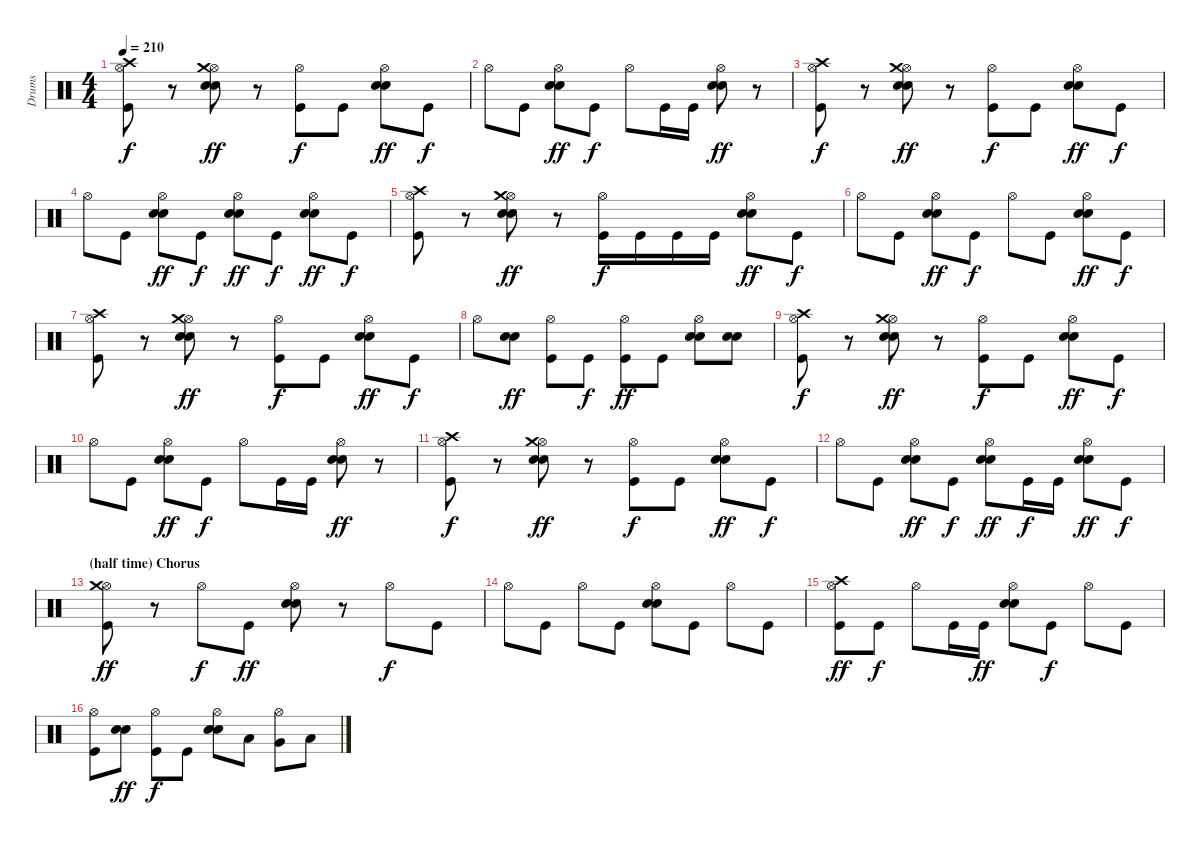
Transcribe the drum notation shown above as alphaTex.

\track ("Drums" "Drums") {instrument percussion}
\staff {score}
\articulation defaults
\ts (4 4)
\tempo 210
\clef neutral
\ks c
("Kick (hit)" "Hi-Hat (open)" "Crash high (hit)").8{dy f} r.8 ("Electric Snare (hit)" "Electric Snare (hit)" "Hi-Hat (open)" "Crash medium (hit)").8{dy ff} r.8 ("Kick (hit)" "Hi-Hat (open)").8{dy f} "Kick (hit)".8 ("Electric Snare (hit)" "Electric Snare (hit)" "Hi-Hat (open)").8{dy ff} "Kick (hit)".8{dy f} |
"Hi-Hat (open)".8 "Kick (hit)".8 ("Electric Snare (hit)" "Electric Snare (hit)" "Hi-Hat (open)").8{dy ff} "Kick (hit)".8{dy f} "Hi-Hat (open)".8 "Kick (hit)".16 "Kick (hit)".16 ("Electric Snare (hit)" "Electric Snare (hit)" "Hi-Hat (open)").8{dy ff} r.8 |
("Kick (hit)" "Hi-Hat (open)" "Crash high (hit)").8{dy f} r.8 ("Electric Snare (hit)" "Electric Snare (hit)" "Hi-Hat (open)" "Crash medium (hit)").8{dy ff} r.8 ("Kick (hit)" "Hi-Hat (open)").8{dy f} "Kick (hit)".8 ("Electric Snare (hit)" "Electric Snare (hit)" "Hi-Hat (open)").8{dy ff} "Kick (hit)".8{dy f} |
"Hi-Hat (open)".8 "Kick (hit)".8 ("Electric Snare (hit)" "Electric Snare (hit)" "Hi-Hat (open)").8{dy ff} "Kick (hit)".8{dy f} ("Electric Snare (hit)" "Electric Snare (hit)" "Hi-Hat (open)").8{dy ff} "Kick (hit)".8{dy f} ("Electric Snare (hit)" "Electric Snare (hit)" "Hi-Hat (open)").8{dy ff} "Kick (hit)".8{dy f} |
("Kick (hit)" "Hi-Hat (open)" "Crash high (hit)").8 r.8 ("Electric Snare (hit)" "Electric Snare (hit)" "Hi-Hat (open)" "Crash medium (hit)").8{dy ff} r.8 ("Kick (hit)" "Hi-Hat (open)").16{dy f} "Kick (hit)".16 "Kick (hit)".16 "Kick (hit)".16 ("Electric Snare (hit)" "Electric Snare (hit)" "Hi-Hat (open)").8{dy ff} "Kick (hit)".8{dy f} |
"Hi-Hat (open)".8 "Kick (hit)".8 ("Electric Snare (hit)" "Electric Snare (hit)" "Hi-Hat (open)").8{dy ff} "Kick (hit)".8{dy f} "Hi-Hat (open)".8 "Kick (hit)".8 ("Electric Snare (hit)" "Electric Snare (hit)" "Hi-Hat (open)").8{dy ff} "Kick (hit)".8{dy f} |
("Kick (hit)" "Hi-Hat (open)" "Crash high (hit)").8 r.8 ("Electric Snare (hit)" "Electric Snare (hit)" "Hi-Hat (open)" "Crash medium (hit)").8{dy ff} r.8 ("Kick (hit)" "Hi-Hat (open)").8{dy f} "Kick (hit)".8 ("Electric Snare (hit)" "Electric Snare (hit)" "Hi-Hat (open)").8{dy ff} "Kick (hit)".8{dy f} |
"Hi-Hat (open)".8 ("Electric Snare (hit)" "Electric Snare (hit)").8{dy ff} ("Kick (hit)" "Hi-Hat (open)").8 "Kick (hit)".8{dy f} ("Kick (hit)" "Hi-Hat (open)").8{dy ff} "Kick (hit)".8 ("Electric Snare (hit)" "Electric Snare (hit)" "Hi-Hat (open)").8 ("Electric Snare (hit)" "Electric Snare (hit)").8 |
("Kick (hit)" "Hi-Hat (open)" "Crash high (hit)").8{dy f} r.8 ("Electric Snare (hit)" "Electric Snare (hit)" "Hi-Hat (open)" "Crash medium (hit)").8{dy ff} r.8 ("Kick (hit)" "Hi-Hat (open)").8{dy f} "Kick (hit)".8 ("Electric Snare (hit)" "Electric Snare (hit)" "Hi-Hat (open)").8{dy ff} "Kick (hit)".8{dy f} |
"Hi-Hat (open)".8 "Kick (hit)".8 ("Electric Snare (hit)" "Electric Snare (hit)" "Hi-Hat (open)").8{dy ff} "Kick (hit)".8{dy f} "Hi-Hat (open)".8 "Kick (hit)".16 "Kick (hit)".16 ("Electric Snare (hit)" "Electric Snare (hit)" "Hi-Hat (open)").8{dy ff} r.8 |
("Kick (hit)" "Hi-Hat (open)" "Crash high (hit)").8{dy f} r.8 ("Electric Snare (hit)" "Electric Snare (hit)" "Hi-Hat (open)" "Crash medium (hit)").8{dy ff} r.8 ("Kick (hit)" "Hi-Hat (open)").8{dy f} "Kick (hit)".8 ("Electric Snare (hit)" "Electric Snare (hit)" "Hi-Hat (open)").8{dy ff} "Kick (hit)".8{dy f} |
"Hi-Hat (open)".8 "Kick (hit)".8 ("Electric Snare (hit)" "Electric Snare (hit)" "Hi-Hat (open)").8{dy ff} "Kick (hit)".8{dy f} ("Electric Snare (hit)" "Electric Snare (hit)" "Hi-Hat (open)").8{dy ff} "Kick (hit)".16{dy f} "Kick (hit)".16 ("Electric Snare (hit)" "Electric Snare (hit)" "Hi-Hat (open)").8{dy ff} "Kick (hit)".8{dy f} |
\section ("" "(half time) Chorus")
("Kick (hit)" "Hi-Hat (open)" "Crash medium (hit)").8{dy ff} r.8 "Hi-Hat (open)".8{dy f} "Kick (hit)".8{dy ff} ("Electric Snare (hit)" "Electric Snare (hit)" "Hi-Hat (open)").8 r.8 "Hi-Hat (open)".8{dy f} "Kick (hit)".8 |
"Hi-Hat (open)".8 "Kick (hit)".8 "Hi-Hat (open)".8 "Kick (hit)".8 ("Electric Snare (hit)" "Electric Snare (hit)" "Hi-Hat (open)").8 "Kick (hit)".8 "Hi-Hat (open)".8 "Kick (hit)".8 |
("Kick (hit)" "Hi-Hat (open)" "Crash high (hit)").8{dy ff} "Kick (hit)".8{dy f} "Hi-Hat (open)".8 "Kick (hit)".16 "Kick (hit)".16{dy ff} ("Electric Snare (hit)" "Electric Snare (hit)" "Hi-Hat (open)").8 "Kick (hit)".8{dy f} "Hi-Hat (open)".8 "Kick (hit)".8 |
("Kick (hit)" "Hi-Hat (open)").8 ("Electric Snare (hit)" "Electric Snare (hit)").8{dy ff} ("Kick (hit)" "Hi-Hat (open)").8{dy f} "Kick (hit)".8 ("Electric Snare (hit)" "Electric Snare (hit)" "Hi-Hat (open)").8 "Low Tom (hit)".8 ("Very Low Tom (hit)" "Hi-Hat (open)").8 "Low Floor Tom (hit)".8
